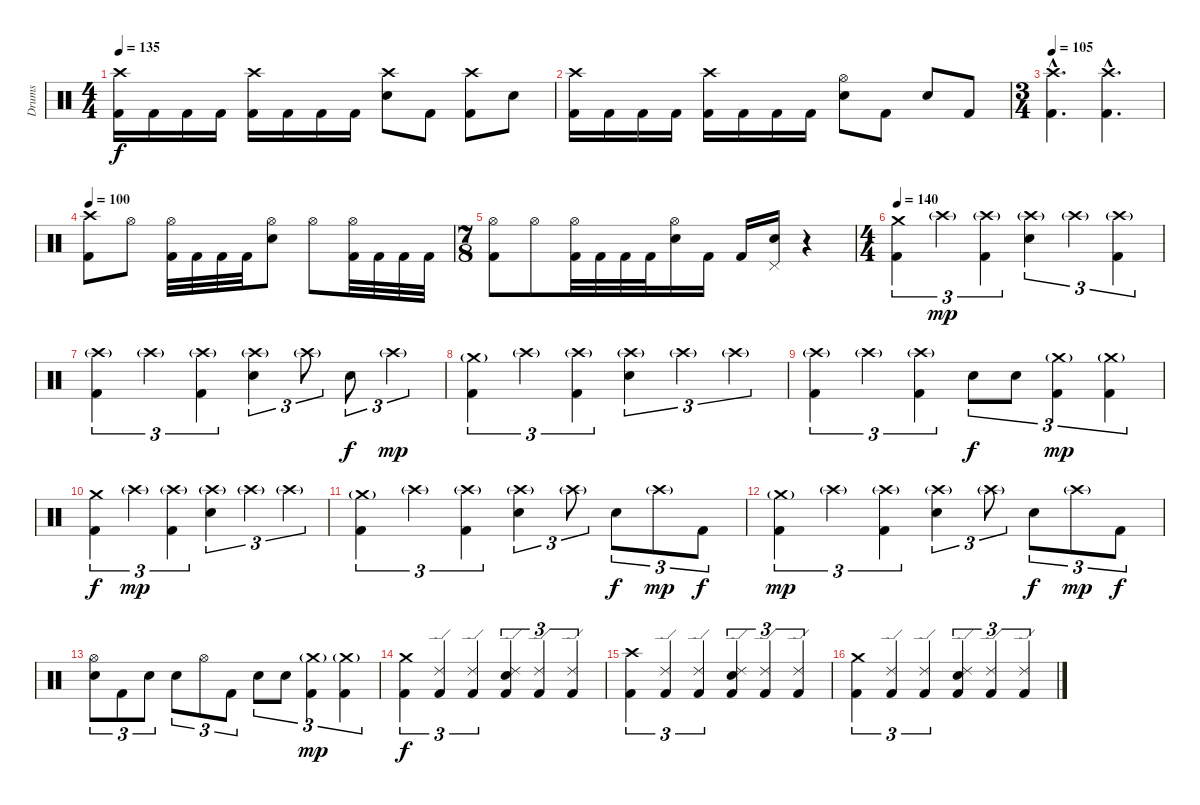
\track ("Drums" "Drums") {instrument percussion}
\staff {score}
\articulation defaults
\ts (4 4)
\tempo 135
\clef neutral
\ks c
("Crash high (hit)" "Kick (hit) 2").16{dy f} "Kick (hit) 2".16 "Kick (hit) 2".16 "Kick (hit) 2".16 ("Crash high (hit)" "Kick (hit) 2").16 "Kick (hit) 2".16 "Kick (hit) 2".16 "Kick (hit) 2".16 ("Crash high (hit)" "Electric Snare (hit)").8 "Kick (hit) 2".8 ("Crash high (hit)" "Kick (hit) 2").8 "Electric Snare (hit)".8 |
("Crash high (hit)" "Kick (hit) 2").16 "Kick (hit) 2".16 "Kick (hit) 2".16 "Kick (hit) 2".16 ("Crash high (hit)" "Kick (hit) 2").16 "Kick (hit) 2".16 "Kick (hit) 2".16 "Kick (hit) 2".16 ("Hi-Hat (open)" "Electric Snare (hit)").8 "Kick (hit) 2".8 "Electric Snare (hit)".8 "Kick (hit) 2".8 |
\ts (3 4)
\tempo 105
("Crash high (hit)"{hac} "Kick (hit) 2"{hac}).4{d} ("Crash high (hit)"{hac} "Kick (hit) 2"{hac}).4{d} |
\tempo 100
("Crash high (hit)" "Kick (hit) 2").8 "Hi-Hat (open)".8 ("Hi-Hat (open)" "Kick (hit) 2").32 "Kick (hit) 2".32 "Kick (hit) 2".32 "Kick (hit) 2".32 ("Hi-Hat (open)" "Electric Snare (hit)").8 "Hi-Hat (open)".8 ("Hi-Hat (open)" "Kick (hit) 2").32 "Kick (hit) 2".32 "Kick (hit) 2".32 "Kick (hit) 2".32 |
\ts (7 8)
("Hi-Hat (open)" "Kick (hit) 2").8 "Hi-Hat (open)".8 ("Hi-Hat (open)" "Kick (hit) 2").32 "Kick (hit) 2".32 "Kick (hit) 2".32 "Kick (hit) 2".32 ("Hi-Hat (open)" "Electric Snare (hit)").16 "Kick (hit) 2".16 "Kick (hit) 2".16 ("Pedal Hi-Hat (hit)" "Electric Snare (hit)").16 r.4 |
\ts (4 4)
\tempo 140
("Crash medium (hit)" "Kick (hit) 2").4{tu (3 2)} "Crash high (hit)"{g}.4{tu (3 2) dy mp} ("Crash high (hit)"{g} "Kick (hit) 2").4{tu (3 2)} ("Crash high (hit)"{g} "Electric Snare (hit)").4{tu (3 2)} "Crash high (hit)"{g}.4{tu (3 2)} ("Crash high (hit)"{g} "Kick (hit) 2").4{tu (3 2)} |
("Crash high (hit)"{g} "Kick (hit) 2").4{tu (3 2)} "Crash high (hit)"{g}.4{tu (3 2)} ("Crash high (hit)"{g} "Kick (hit) 2").4{tu (3 2)} ("Crash high (hit)"{g} "Electric Snare (hit)").4{tu (3 2)} "Crash high (hit)"{g}.8{tu (3 2)} "Electric Snare (hit)".8{tu (3 2) dy f} "Crash high (hit)"{g}.4{tu (3 2) dy mp} |
("Crash medium (hit)"{g} "Kick (hit) 2").4{tu (3 2)} "Crash high (hit)"{g}.4{tu (3 2)} ("Crash high (hit)"{g} "Kick (hit) 2").4{tu (3 2)} ("Crash high (hit)"{g} "Electric Snare (hit)").4{tu (3 2)} "Crash high (hit)"{g}.4{tu (3 2)} "Crash high (hit)"{g}.4{tu (3 2)} |
("Crash high (hit)"{g} "Kick (hit) 2").4{tu (3 2)} "Crash high (hit)"{g}.4{tu (3 2)} ("Crash high (hit)"{g} "Kick (hit) 2").4{tu (3 2)} "Electric Snare (hit)".8{tu (3 2) dy f} "Electric Snare (hit)".8{tu (3 2)} ("Crash medium (hit)"{g} "Kick (hit) 2").4{tu (3 2) dy mp} ("Crash medium (hit)"{g} "Kick (hit) 2").4{tu (3 2)} |
("Crash medium (hit)" "Kick (hit) 2").4{tu (3 2) dy f} "Crash high (hit)"{g}.4{tu (3 2) dy mp} ("Crash high (hit)"{g} "Kick (hit) 2").4{tu (3 2)} ("Crash high (hit)"{g} "Electric Snare (hit)").4{tu (3 2)} "Crash high (hit)"{g}.4{tu (3 2)} "Crash high (hit)"{g}.4{tu (3 2)} |
("Crash medium (hit)"{g} "Kick (hit) 2").4{tu (3 2)} "Crash high (hit)"{g}.4{tu (3 2)} ("Crash high (hit)"{g} "Kick (hit) 2").4{tu (3 2)} ("Crash high (hit)"{g} "Electric Snare (hit)").4{tu (3 2)} "Crash high (hit)"{g}.8{tu (3 2)} "Electric Snare (hit)".8{tu (3 2) dy f} "Crash high (hit)"{g}.8{tu (3 2) dy mp} "Kick (hit) 2".8{tu (3 2) dy f} |
("Crash medium (hit)"{g} "Kick (hit) 2").4{tu (3 2) dy mp} "Crash high (hit)"{g}.4{tu (3 2)} ("Crash high (hit)"{g} "Kick (hit) 2").4{tu (3 2)} ("Crash high (hit)"{g} "Electric Snare (hit)").4{tu (3 2)} "Crash high (hit)"{g}.8{tu (3 2)} "Electric Snare (hit)".8{tu (3 2) dy f} "Crash high (hit)"{g}.8{tu (3 2) dy mp} "Kick (hit) 2".8{tu (3 2) dy f} |
("Hi-Hat (open)" "Electric Snare (hit)").8{tu (3 2)} "Kick (hit) 2".8{tu (3 2)} "Electric Snare (hit)".8{tu (3 2)} "Electric Snare (hit)".8{tu (3 2)} "Hi-Hat (open)".8{tu (3 2)} "Kick (hit) 2".8{tu (3 2)} "Electric Snare (hit)".8{tu (3 2)} "Electric Snare (hit)".8{tu (3 2)} ("Crash medium (hit)"{g} "Kick (hit) 2").4{tu (3 2) dy mp} ("Crash medium (hit)"{g} "Kick (hit) 2").4{tu (3 2)} |
("Crash medium (hit)" "Kick (hit) 2").4{tu (3 2) dy f} ("Ride (edge) 2" "Kick (hit) 2").4{tu (3 2)} ("Ride (edge) 2" "Kick (hit) 2").4{tu (3 2)} ("Ride (edge) 2" "Electric Snare (hit)" "Kick (hit) 2").4{tu (3 2)} ("Ride (edge) 2" "Kick (hit) 2").4{tu (3 2)} ("Ride (edge) 2" "Kick (hit) 2").4{tu (3 2)} |
("Crash high (hit)" "Kick (hit) 2").4{tu (3 2)} ("Ride (edge) 2" "Kick (hit) 2").4{tu (3 2)} ("Ride (edge) 2" "Kick (hit) 2").4{tu (3 2)} ("Ride (edge) 2" "Electric Snare (hit)" "Kick (hit) 2").4{tu (3 2)} ("Ride (edge) 2" "Kick (hit) 2").4{tu (3 2)} ("Ride (edge) 2" "Kick (hit) 2").4{tu (3 2)} |
("Crash medium (hit)" "Kick (hit) 2").4{tu (3 2)} ("Ride (edge) 2" "Kick (hit) 2").4{tu (3 2)} ("Ride (edge) 2" "Kick (hit) 2").4{tu (3 2)} ("Ride (edge) 2" "Electric Snare (hit)" "Kick (hit) 2").4{tu (3 2)} ("Ride (edge) 2" "Kick (hit) 2").4{tu (3 2)} ("Ride (edge) 2" "Kick (hit) 2").4{tu (3 2)}
